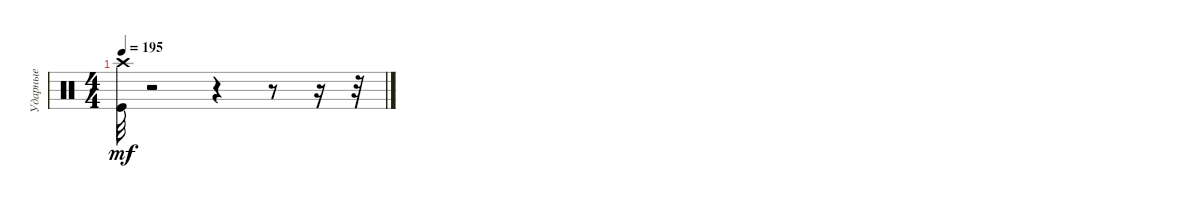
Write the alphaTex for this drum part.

\track ("Ударные" "Ударные") {instrument percussion}
\staff {score}
\articulation defaults
\ts (4 4)
\tempo 195
\clef neutral
\ks c
("Crash high (hit)" "Kick (hit)").32{dy mf} r.2 r.4 r.8 r.16 r.32
